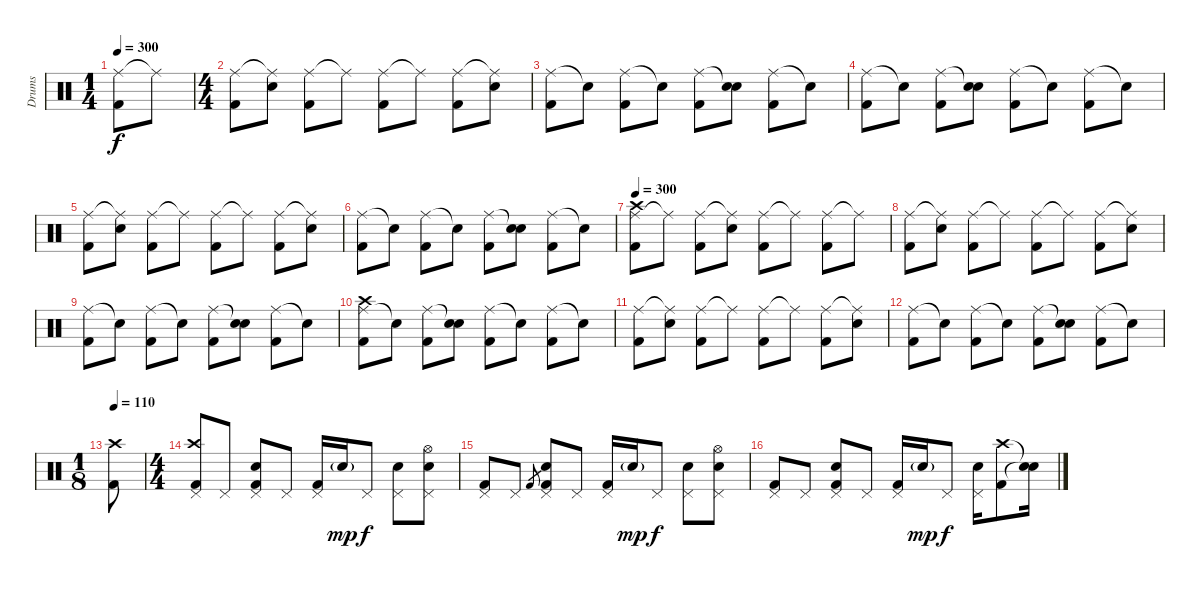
\track ("Drums" "Drums") {instrument percussion}
\staff {score}
\articulation defaults
\ts (1 4)
\tempo 300
\clef neutral
\ks c
("Ride (middle)" "Kick (hit) 2").8{dy f} "Ride (middle)"{t}.8 |
\ts (4 4)
("Ride (middle)" "Kick (hit) 2").8 ("Ride (middle)"{t} "Snare (hit) 2").8 ("Ride (middle)" "Kick (hit) 2").8 "Ride (middle)"{t}.8 ("Ride (middle)" "Kick (hit) 2").8 "Ride (middle)"{t}.8 ("Ride (middle)" "Kick (hit) 2").8 ("Ride (middle)"{t} "Snare (hit) 2").8 |
("Ride (middle)" "Kick (hit) 2").8 "Snare (hit)"{t}.8 ("Ride (middle)" "Kick (hit) 2").8 "Snare (hit)"{t}.8 ("Ride (middle)" "Kick (hit) 2").8 ("Snare (hit)"{t} "Snare (hit) 2").8 ("Ride (middle)" "Kick (hit) 2").8 "Snare (hit)"{t}.8 |
("Ride (middle)" "Kick (hit) 2").8 "Snare (hit)"{t}.8 ("Ride (middle)" "Kick (hit) 2").8 ("Snare (hit)"{t} "Snare (hit) 2").8 ("Ride (middle)" "Kick (hit) 2").8 "Snare (hit)"{t}.8 ("Ride (middle)" "Kick (hit) 2").8 "Snare (hit)"{t}.8 |
("Ride (middle)" "Kick (hit) 2").8 ("Ride (middle)"{t} "Snare (hit) 2").8 ("Ride (middle)" "Kick (hit) 2").8 "Ride (middle)"{t}.8 ("Ride (middle)" "Kick (hit) 2").8 "Ride (middle)"{t}.8 ("Ride (middle)" "Kick (hit) 2").8 ("Ride (middle)"{t} "Snare (hit) 2").8 |
("Ride (middle)" "Kick (hit) 2").8 "Snare (hit)"{t}.8 ("Ride (middle)" "Kick (hit) 2").8 "Snare (hit)"{t}.8 ("Ride (middle)" "Kick (hit) 2").8 ("Snare (hit)"{t} "Snare (hit) 2").8 ("Ride (middle)" "Kick (hit) 2").8 "Snare (hit)"{t}.8 |
\tempo 300
("Ride (middle)" "Kick (hit) 2" "Crash high (hit)").8 "Ride (middle)"{t}.8 ("Ride (middle)" "Kick (hit) 2").8 ("Ride (middle)"{t} "Snare (hit) 2").8 ("Ride (middle)" "Kick (hit) 2").8 "Ride (middle)"{t}.8 ("Ride (middle)" "Kick (hit) 2").8 "Ride (middle)"{t}.8 |
("Ride (middle)" "Kick (hit) 2").8 ("Ride (middle)"{t} "Snare (hit) 2").8 ("Ride (middle)" "Kick (hit) 2").8 "Ride (middle)"{t}.8 ("Ride (middle)" "Kick (hit) 2").8 "Ride (middle)"{t}.8 ("Ride (middle)" "Kick (hit) 2").8 ("Ride (middle)"{t} "Snare (hit) 2").8 |
("Ride (middle)" "Kick (hit) 2").8 "Snare (hit)"{t}.8 ("Ride (middle)" "Kick (hit) 2").8 "Snare (hit)"{t}.8 ("Ride (middle)" "Kick (hit) 2").8 ("Snare (hit)"{t} "Snare (hit) 2").8 ("Ride (middle)" "Kick (hit) 2").8 "Snare (hit)"{t}.8 |
("Ride (middle)" "Kick (hit) 2" "Crash high (hit)").8 "Snare (hit)"{t}.8 ("Ride (middle)" "Kick (hit) 2").8 ("Snare (hit)"{t} "Snare (hit) 2").8 ("Ride (middle)" "Kick (hit) 2").8 "Snare (hit)"{t}.8 ("Ride (middle)" "Kick (hit) 2").8 "Snare (hit)"{t}.8 |
("Ride (middle)" "Kick (hit) 2").8 ("Ride (middle)"{t} "Snare (hit) 2").8 ("Ride (middle)" "Kick (hit) 2").8 "Ride (middle)"{t}.8 ("Ride (middle)" "Kick (hit) 2").8 "Ride (middle)"{t}.8 ("Ride (middle)" "Kick (hit) 2").8 ("Ride (middle)"{t} "Snare (hit) 2").8 |
("Ride (middle)" "Kick (hit) 2").8 "Snare (hit)"{t}.8 ("Ride (middle)" "Kick (hit) 2").8 "Snare (hit)"{t}.8 ("Ride (middle)" "Kick (hit) 2").8 ("Snare (hit)"{t} "Snare (hit) 2").8 ("Ride (middle)" "Kick (hit) 2").8 "Snare (hit)"{t}.8 |
\ts (1 8)
\tempo 110
("Crash high (hit)" "Kick (hit) 2").8 |
\ts (4 4)
("Pedal Hi-Hat (hit)" "Kick (hit) 2" "Crash high (hit)").8 "Pedal Hi-Hat (hit)".8 ("Pedal Hi-Hat (hit)" "Snare (hit) 2" "Kick (hit) 2").8 "Pedal Hi-Hat (hit)".8 ("Pedal Hi-Hat (hit)" "Kick (hit) 2").16 "Snare (hit) 2"{g}.16{dy mp} "Pedal Hi-Hat (hit)".8{dy f} ("Pedal Hi-Hat (hit)" "Snare (hit) 2").8 ("Pedal Hi-Hat (hit)" "Snare (hit) 2" "Hi-Hat (open)").8 |
("Pedal Hi-Hat (hit)" "Kick (hit) 2").8 "Pedal Hi-Hat (hit)".8 "Kick (hit) 2".8{gr} ("Pedal Hi-Hat (hit)" "Snare (hit) 2" "Kick (hit) 2").8 "Pedal Hi-Hat (hit)".8 ("Pedal Hi-Hat (hit)" "Kick (hit) 2").16 "Snare (hit) 2"{g}.16{dy mp} "Pedal Hi-Hat (hit)".8{dy f} ("Pedal Hi-Hat (hit)" "Snare (hit) 2").8 ("Pedal Hi-Hat (hit)" "Snare (hit) 2" "Hi-Hat (open)").8 |
("Pedal Hi-Hat (hit)" "Kick (hit) 2").8 "Pedal Hi-Hat (hit)".8 ("Pedal Hi-Hat (hit)" "Snare (hit) 2" "Kick (hit) 2").8 "Pedal Hi-Hat (hit)".8 ("Pedal Hi-Hat (hit)" "Kick (hit) 2").16 "Snare (hit) 2"{g}.16{dy mp} "Pedal Hi-Hat (hit)".8{dy f} ("Pedal Hi-Hat (hit)" "Snare (hit) 2").16 ("Crash high (hit)" "Kick (hit) 2").8 ("Snare (hit)"{t} "Snare (hit)"{t}).16
